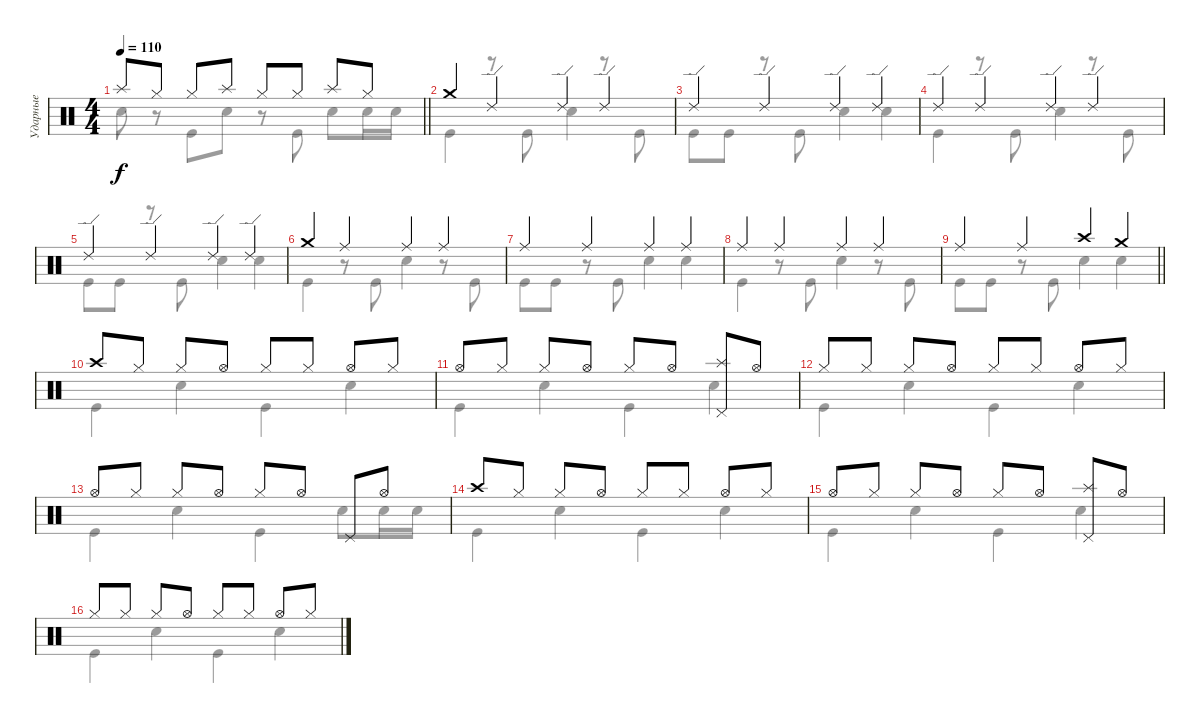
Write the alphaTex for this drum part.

\track ("Ударные" "Ударные") {instrument percussion}
\staff {score}
\articulation defaults
\voice
\ts (4 4)
\tempo 110
\clef neutral
\barLineRight lightlight
\ks c "Splash (hit)".8{dy f} "Hi-Hat (closed)".8 "Hi-Hat (closed)".8 "Splash (hit)".8 "Hi-Hat (closed)".8 "Hi-Hat (closed)".8 "Splash (hit)".8 "Hi-Hat (closed)".8
|
"Crash medium (hit)".4 "Ride (edge) 2".4 "Ride (edge) 2".4 "Ride (edge) 2".4 |
"Ride (edge) 2".4 "Ride (edge) 2".4 "Ride (edge) 2".4 "Ride (edge) 2".4 |
"Ride (edge) 2".4 "Ride (edge) 2".4 "Ride (edge) 2".4 "Ride (edge) 2".4 |
"Ride (edge) 2".4 "Ride (edge) 2".4 "Ride (edge) 2".4 "Ride (edge) 2".4 |
"Crash medium (hit)".4 "Ride (middle)".4 "Ride (middle)".4 "Ride (middle)".4 |
"Ride (middle)".4 "Ride (middle)".4 "Ride (middle)".4 "Ride (middle)".4 |
"Ride (middle)".4 "Ride (middle)".4 "Ride (middle)".4 "Ride (middle)".4 |
\barLineRight lightlight "Ride (middle)".4 "Ride (middle)".4 "Crash high (hit)".4 "Crash medium (hit)".4
|
"Crash high (hit)".8 "Hi-Hat (closed)".8 "Hi-Hat (closed)".8 "Hi-Hat (open)".8 "Hi-Hat (closed)".8 "Hi-Hat (closed)".8 "Hi-Hat (open)".8 "Hi-Hat (closed)".8 |
"Hi-Hat (open)".8 "Hi-Hat (closed)".8 "Hi-Hat (closed)".8 "Hi-Hat (open)".8 "Hi-Hat (closed)".8 "Hi-Hat (open)".8 ("Pedal Hi-Hat (hit)" "Splash (hit)").8 "Hi-Hat (open)".8 |
"Hi-Hat (closed)".8 "Hi-Hat (closed)".8 "Hi-Hat (closed)".8 "Hi-Hat (open)".8 "Hi-Hat (closed)".8 "Hi-Hat (closed)".8 "Hi-Hat (open)".8 "Hi-Hat (closed)".8 |
"Hi-Hat (open)".8 "Hi-Hat (closed)".8 "Hi-Hat (closed)".8 "Hi-Hat (open)".8 "Hi-Hat (closed)".8 "Hi-Hat (open)".8 "Pedal Hi-Hat (hit)".8 "Hi-Hat (open)".8 |
"Crash high (hit)".8 "Hi-Hat (closed)".8 "Hi-Hat (closed)".8 "Hi-Hat (open)".8 "Hi-Hat (closed)".8 "Hi-Hat (closed)".8 "Hi-Hat (open)".8 "Hi-Hat (closed)".8 |
"Hi-Hat (open)".8 "Hi-Hat (closed)".8 "Hi-Hat (closed)".8 "Hi-Hat (open)".8 "Hi-Hat (closed)".8 "Hi-Hat (open)".8 ("Pedal Hi-Hat (hit)" "Splash (hit)").8 "Hi-Hat (open)".8 |
"Hi-Hat (closed)".8 "Hi-Hat (closed)".8 "Hi-Hat (closed)".8 "Hi-Hat (open)".8 "Hi-Hat (closed)".8 "Hi-Hat (closed)".8 "Hi-Hat (open)".8 "Hi-Hat (closed)".8
\voice
\clef neutral
\ottava regular
\simile none
\barLineRight lightlight
\ks c "Snare (hit) 2".8{dy f}
r.8 "Kick (hit)".8 "Snare (hit) 2".8 r.8 "Kick (hit)".8 "Snare (hit) 2".8 "Snare (hit) 2".16 "Snare (hit) 2".16 |
"Kick (hit)".4 r.8 "Kick (hit)".8 "Snare (hit) 2".4 r.8 "Kick (hit)".8 |
"Kick (hit)".8 "Kick (hit)".8 r.8 "Kick (hit)".8 "Snare (hit) 2".4 "Snare (hit) 2".4 |
"Kick (hit)".4 r.8 "Kick (hit)".8 "Snare (hit) 2".4 r.8 "Kick (hit)".8 |
"Kick (hit)".8 "Kick (hit)".8 r.8 "Kick (hit)".8 "Snare (hit) 2".4 "Snare (hit) 2".4 |
"Kick (hit)".4 r.8 "Kick (hit)".8 "Snare (hit) 2".4 r.8 "Kick (hit)".8 |
"Kick (hit)".8 "Kick (hit)".8 r.8 "Kick (hit)".8 "Snare (hit) 2".4 "Snare (hit) 2".4 |
"Kick (hit)".4 r.8 "Kick (hit)".8 "Snare (hit) 2".4 r.8 "Kick (hit)".8 |
\barLineRight lightlight "Kick (hit)".8 "Kick (hit)".8
r.8 "Kick (hit)".8 "Snare (hit) 2".4 "Snare (hit) 2".4 |
"Kick (hit)".4 "Snare (hit) 2".4 "Kick (hit)".4 "Snare (hit) 2".4 |
"Kick (hit)".4 "Snare (hit) 2".4 "Kick (hit)".4 "Snare (hit) 2".4 |
"Kick (hit)".4 "Snare (hit) 2".4 "Kick (hit)".4 "Snare (hit) 2".4 |
"Kick (hit)".4 "Snare (hit) 2".4 "Kick (hit)".4 "Snare (hit) 2".8 "Snare (hit) 2".16 "Snare (hit) 2".16 |
"Kick (hit)".4 "Snare (hit) 2".4 "Kick (hit)".4 "Snare (hit) 2".4 |
"Kick (hit)".4 "Snare (hit) 2".4 "Kick (hit)".4 "Snare (hit) 2".4 |
"Kick (hit)".4 "Snare (hit) 2".4 "Kick (hit)".4 "Snare (hit) 2".4
